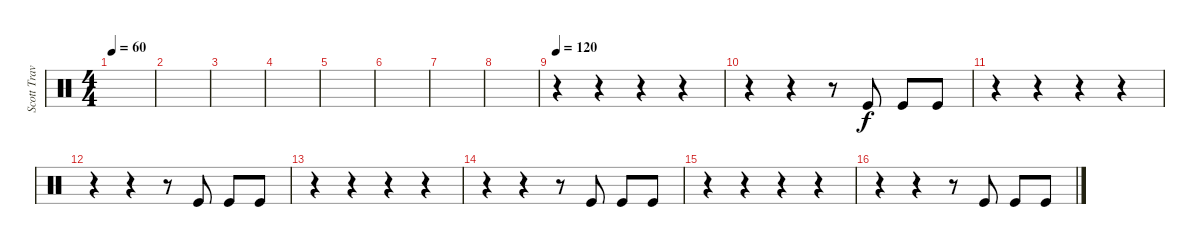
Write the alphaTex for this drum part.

\track ("Scott Travis" "Scott Trav") {instrument percussion}
\staff {score}
\articulation defaults
\ts (4 4)
\tempo 60
\clef neutral
\ks c
|
|
|
|
|
|
|
|
\tempo 120
r.4 r.4 r.4 r.4 |
r.4 r.4 r.8 "Kick (hit)".8 "Kick (hit)".8 "Kick (hit)".8 |
r.4 r.4 r.4 r.4 |
r.4 r.4 r.8 "Kick (hit)".8 "Kick (hit)".8 "Kick (hit)".8 |
r.4 r.4 r.4 r.4 |
r.4 r.4 r.8 "Kick (hit)".8 "Kick (hit)".8 "Kick (hit)".8 |
r.4 r.4 r.4 r.4 |
r.4 r.4 r.8 "Kick (hit)".8 "Kick (hit)".8 "Kick (hit)".8
